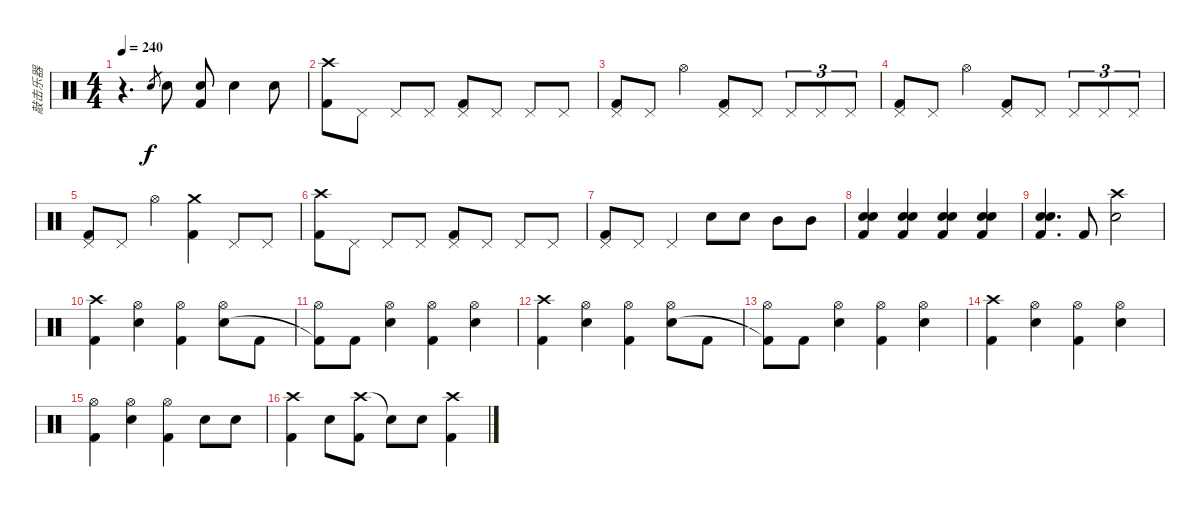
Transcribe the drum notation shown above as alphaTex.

\track ("敲击乐器" "敲击乐器") {instrument percussion}
\staff {score}
\articulation defaults
\ts (4 4)
\tempo 240
\clef neutral
\ks c
r.4{d dy f} "Electric Snare (hit)".8{gr} "Electric Snare (hit)".8 ("Snare (hit) 2" "Kick (hit) 2").8 "Snare (hit) 2".4 "Snare (hit) 2".8 |
("Crash high (hit)" "Kick (hit) 2").8 "Pedal Hi-Hat (hit)".8 "Pedal Hi-Hat (hit)".8 "Pedal Hi-Hat (hit)".8 ("Pedal Hi-Hat (hit)" "Kick (hit) 2").8 "Pedal Hi-Hat (hit)".8 "Pedal Hi-Hat (hit)".8 "Pedal Hi-Hat (hit)".8 |
("Pedal Hi-Hat (hit)" "Kick (hit) 2").8 "Pedal Hi-Hat (hit)".8 "Hi-Hat (open)".4 ("Pedal Hi-Hat (hit)" "Kick (hit) 2").8 "Pedal Hi-Hat (hit)".8 "Pedal Hi-Hat (hit)".8{tu (3 2)} "Pedal Hi-Hat (hit)".8{tu (3 2)} "Pedal Hi-Hat (hit)".8{tu (3 2)} |
("Pedal Hi-Hat (hit)" "Kick (hit) 2").8 "Pedal Hi-Hat (hit)".8 "Hi-Hat (open)".4 ("Pedal Hi-Hat (hit)" "Kick (hit) 2").8 "Pedal Hi-Hat (hit)".8 "Pedal Hi-Hat (hit)".8{tu (3 2)} "Pedal Hi-Hat (hit)".8{tu (3 2)} "Pedal Hi-Hat (hit)".8{tu (3 2)} |
("Pedal Hi-Hat (hit)" "Kick (hit) 2").8 "Pedal Hi-Hat (hit)".8 "Hi-Hat (open)".4 ("Crash medium (hit)" "Kick (hit) 2").4 "Pedal Hi-Hat (hit)".8 "Pedal Hi-Hat (hit)".8 |
("Crash high (hit)" "Kick (hit) 2").8 "Pedal Hi-Hat (hit)".8 "Pedal Hi-Hat (hit)".8 "Pedal Hi-Hat (hit)".8 ("Pedal Hi-Hat (hit)" "Kick (hit) 2").8 "Pedal Hi-Hat (hit)".8 "Pedal Hi-Hat (hit)".8 "Pedal Hi-Hat (hit)".8 |
("Pedal Hi-Hat (hit)" "Kick (hit) 2").8 "Pedal Hi-Hat (hit)".8 "Pedal Hi-Hat (hit)".4 "Electric Snare (hit)".8 "Electric Snare (hit)".8 "Mid Tom (hit)".8 "Mid Tom (hit)".8 |
("Electric Snare (hit)" "Snare (hit) 2" "Kick (hit) 2").4 ("Electric Snare (hit)" "Snare (hit) 2" "Kick (hit) 2").4 ("Electric Snare (hit)" "Snare (hit) 2" "Kick (hit) 2").4 ("Electric Snare (hit)" "Snare (hit) 2" "Kick (hit) 2").4 |
("Electric Snare (hit)" "Snare (hit) 2" "Kick (hit) 2").4{d} "Kick (hit) 2".8 ("Crash high (hit)" "Electric Snare (hit)").2 |
("Crash high (hit)" "Kick (hit) 2").4 ("Hi-Hat (open)" "Electric Snare (hit)").4 ("Hi-Hat (open)" "Kick (hit) 2").4 ("Hi-Hat (open)" "Electric Snare (hit)").8 "Kick (hit) 2".8 |
("Hi-Hat (open)" "Kick (hit) 2"{t}).8 "Kick (hit) 2".8 ("Hi-Hat (open)" "Electric Snare (hit)").4 ("Hi-Hat (open)" "Kick (hit) 2").4 ("Hi-Hat (open)" "Electric Snare (hit)").4 |
("Crash high (hit)" "Kick (hit) 2").4 ("Hi-Hat (open)" "Electric Snare (hit)").4 ("Hi-Hat (open)" "Kick (hit) 2").4 ("Hi-Hat (open)" "Electric Snare (hit)").8 "Kick (hit) 2".8 |
("Hi-Hat (open)" "Kick (hit) 2"{t}).8 "Kick (hit) 2".8 ("Hi-Hat (open)" "Electric Snare (hit)").4 ("Hi-Hat (open)" "Kick (hit) 2").4 ("Hi-Hat (open)" "Electric Snare (hit)").4 |
("Crash high (hit)" "Kick (hit) 2").4 ("Hi-Hat (open)" "Electric Snare (hit)").4 ("Hi-Hat (open)" "Kick (hit) 2").4 ("Hi-Hat (open)" "Electric Snare (hit)").4 |
("Hi-Hat (open)" "Kick (hit) 2").4 ("Hi-Hat (open)" "Electric Snare (hit)").4 ("Hi-Hat (open)" "Kick (hit) 2").4 "Electric Snare (hit)".8 "Electric Snare (hit)".8 |
("Crash high (hit)" "Kick (hit) 2").4 "Electric Snare (hit)".8 ("Crash high (hit)" "Kick (hit) 2").8 "Snare (hit)"{t}.8 "Electric Snare (hit)".8 ("Crash high (hit)" "Kick (hit) 2").4
